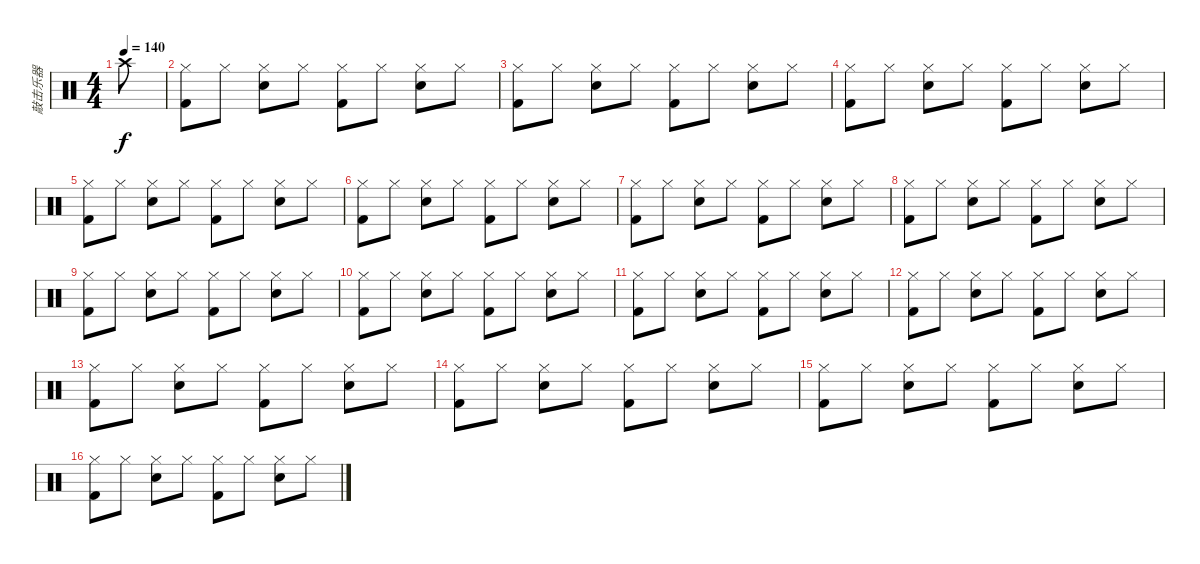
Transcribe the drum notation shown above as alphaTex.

\track ("敲击乐器" "敲击乐器") {instrument percussion}
\staff {score}
\articulation defaults
\ts (4 4)
\tempo 140
\clef neutral
\ks c "Crash high (hit)".8{dy f}
|
("Kick (hit) 2" "Hi-Hat (closed)").8 "Hi-Hat (closed)".8 ("Snare (hit) 2" "Hi-Hat (closed)").8 "Hi-Hat (closed)".8 ("Kick (hit) 2" "Hi-Hat (closed)").8 "Hi-Hat (closed)".8 ("Snare (hit) 2" "Hi-Hat (closed)").8 "Hi-Hat (closed)".8 |
("Kick (hit) 2" "Hi-Hat (closed)").8 "Hi-Hat (closed)".8 ("Snare (hit) 2" "Hi-Hat (closed)").8 "Hi-Hat (closed)".8 ("Kick (hit) 2" "Hi-Hat (closed)").8 "Hi-Hat (closed)".8 ("Snare (hit) 2" "Hi-Hat (closed)").8 "Hi-Hat (closed)".8 |
("Kick (hit) 2" "Hi-Hat (closed)").8 "Hi-Hat (closed)".8 ("Snare (hit) 2" "Hi-Hat (closed)").8 "Hi-Hat (closed)".8 ("Kick (hit) 2" "Hi-Hat (closed)").8 "Hi-Hat (closed)".8 ("Snare (hit) 2" "Hi-Hat (closed)").8 "Hi-Hat (closed)".8 |
("Kick (hit) 2" "Hi-Hat (closed)").8 "Hi-Hat (closed)".8 ("Snare (hit) 2" "Hi-Hat (closed)").8 "Hi-Hat (closed)".8 ("Kick (hit) 2" "Hi-Hat (closed)").8 "Hi-Hat (closed)".8 ("Snare (hit) 2" "Hi-Hat (closed)").8 "Hi-Hat (closed)".8 |
("Kick (hit) 2" "Hi-Hat (closed)").8 "Hi-Hat (closed)".8 ("Snare (hit) 2" "Hi-Hat (closed)").8 "Hi-Hat (closed)".8 ("Kick (hit) 2" "Hi-Hat (closed)").8 "Hi-Hat (closed)".8 ("Snare (hit) 2" "Hi-Hat (closed)").8 "Hi-Hat (closed)".8 |
("Kick (hit) 2" "Hi-Hat (closed)").8 "Hi-Hat (closed)".8 ("Snare (hit) 2" "Hi-Hat (closed)").8 "Hi-Hat (closed)".8 ("Kick (hit) 2" "Hi-Hat (closed)").8 "Hi-Hat (closed)".8 ("Snare (hit) 2" "Hi-Hat (closed)").8 "Hi-Hat (closed)".8 |
("Kick (hit) 2" "Hi-Hat (closed)").8 "Hi-Hat (closed)".8 ("Snare (hit) 2" "Hi-Hat (closed)").8 "Hi-Hat (closed)".8 ("Kick (hit) 2" "Hi-Hat (closed)").8 "Hi-Hat (closed)".8 ("Snare (hit) 2" "Hi-Hat (closed)").8 "Hi-Hat (closed)".8 |
("Kick (hit) 2" "Hi-Hat (closed)").8 "Hi-Hat (closed)".8 ("Snare (hit) 2" "Hi-Hat (closed)").8 "Hi-Hat (closed)".8 ("Kick (hit) 2" "Hi-Hat (closed)").8 "Hi-Hat (closed)".8 ("Snare (hit) 2" "Hi-Hat (closed)").8 "Hi-Hat (closed)".8 |
("Kick (hit) 2" "Hi-Hat (closed)").8 "Hi-Hat (closed)".8 ("Snare (hit) 2" "Hi-Hat (closed)").8 "Hi-Hat (closed)".8 ("Kick (hit) 2" "Hi-Hat (closed)").8 "Hi-Hat (closed)".8 ("Snare (hit) 2" "Hi-Hat (closed)").8 "Hi-Hat (closed)".8 |
("Kick (hit) 2" "Hi-Hat (closed)").8 "Hi-Hat (closed)".8 ("Snare (hit) 2" "Hi-Hat (closed)").8 "Hi-Hat (closed)".8 ("Kick (hit) 2" "Hi-Hat (closed)").8 "Hi-Hat (closed)".8 ("Snare (hit) 2" "Hi-Hat (closed)").8 "Hi-Hat (closed)".8 |
("Kick (hit) 2" "Hi-Hat (closed)").8 "Hi-Hat (closed)".8 ("Snare (hit) 2" "Hi-Hat (closed)").8 "Hi-Hat (closed)".8 ("Kick (hit) 2" "Hi-Hat (closed)").8 "Hi-Hat (closed)".8 ("Snare (hit) 2" "Hi-Hat (closed)").8 "Hi-Hat (closed)".8 |
("Kick (hit) 2" "Hi-Hat (closed)").8 "Hi-Hat (closed)".8 ("Snare (hit) 2" "Hi-Hat (closed)").8 "Hi-Hat (closed)".8 ("Kick (hit) 2" "Hi-Hat (closed)").8 "Hi-Hat (closed)".8 ("Snare (hit) 2" "Hi-Hat (closed)").8 "Hi-Hat (closed)".8 |
("Kick (hit) 2" "Hi-Hat (closed)").8 "Hi-Hat (closed)".8 ("Snare (hit) 2" "Hi-Hat (closed)").8 "Hi-Hat (closed)".8 ("Kick (hit) 2" "Hi-Hat (closed)").8 "Hi-Hat (closed)".8 ("Snare (hit) 2" "Hi-Hat (closed)").8 "Hi-Hat (closed)".8 |
("Kick (hit) 2" "Hi-Hat (closed)").8 "Hi-Hat (closed)".8 ("Snare (hit) 2" "Hi-Hat (closed)").8 "Hi-Hat (closed)".8 ("Kick (hit) 2" "Hi-Hat (closed)").8 "Hi-Hat (closed)".8 ("Snare (hit) 2" "Hi-Hat (closed)").8 "Hi-Hat (closed)".8 |
("Kick (hit) 2" "Hi-Hat (closed)").8 "Hi-Hat (closed)".8 ("Snare (hit) 2" "Hi-Hat (closed)").8 "Hi-Hat (closed)".8 ("Kick (hit) 2" "Hi-Hat (closed)").8 "Hi-Hat (closed)".8 ("Snare (hit) 2" "Hi-Hat (closed)").8 "Hi-Hat (closed)".8
